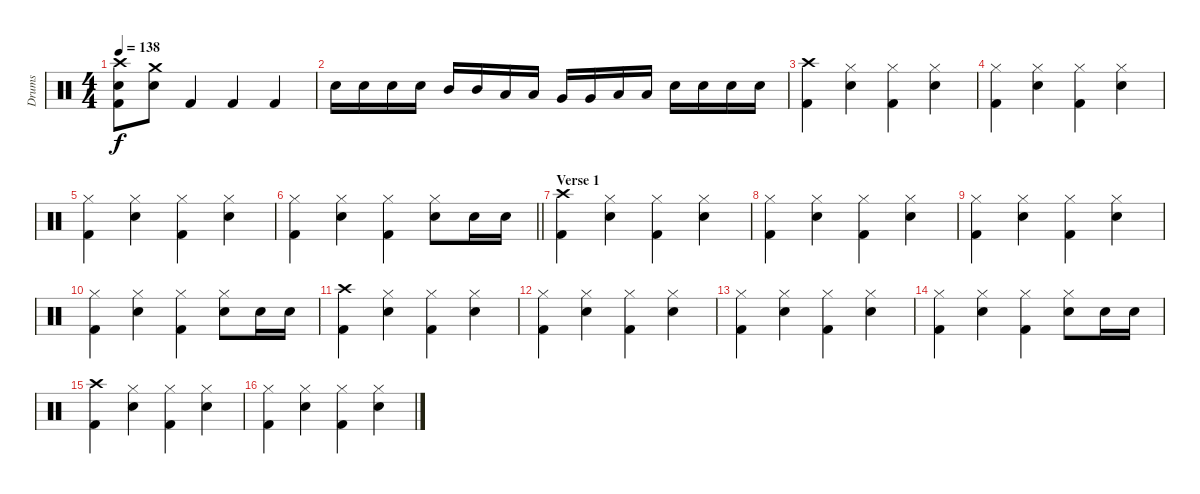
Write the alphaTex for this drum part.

\track ("Drums" "Drums") {instrument percussion}
\staff {score}
\articulation defaults
\ts (4 4)
\tempo 138
\clef neutral
\ks c
("Crash high (hit)" "Snare (hit) 2" "Kick (hit) 2").8{dy f} ("Crash medium (hit)" "Snare (hit) 2").8 "Kick (hit) 2".4 "Kick (hit) 2".4 "Kick (hit) 2".4 |
"Snare (hit) 2".16 "Snare (hit) 2".16 "Snare (hit) 2".16 "Snare (hit) 2".16 "Mid Tom (hit)".16 "Mid Tom (hit)".16 "Low Tom (hit)".16 "Low Tom (hit)".16 "Very Low Tom (hit)".16 "Very Low Tom (hit)".16 "Low Floor Tom (hit)".16 "Low Floor Tom (hit)".16 "Snare (hit) 2".16 "Snare (hit) 2".16 "Snare (hit) 2".16 "Snare (hit) 2".16 |
("Crash high (hit)" "Kick (hit) 2").4 ("Snare (hit) 2" "Hi-Hat (closed)").4 ("Hi-Hat (closed)" "Kick (hit) 2").4 ("Snare (hit) 2" "Hi-Hat (closed)").4 |
("Hi-Hat (closed)" "Kick (hit) 2").4 ("Snare (hit) 2" "Hi-Hat (closed)").4 ("Hi-Hat (closed)" "Kick (hit) 2").4 ("Snare (hit) 2" "Hi-Hat (closed)").4 |
("Hi-Hat (closed)" "Kick (hit) 2").4 ("Snare (hit) 2" "Hi-Hat (closed)").4 ("Hi-Hat (closed)" "Kick (hit) 2").4 ("Snare (hit) 2" "Hi-Hat (closed)").4 |
\barLineRight lightlight
("Hi-Hat (closed)" "Kick (hit) 2").4 ("Snare (hit) 2" "Hi-Hat (closed)").4 ("Hi-Hat (closed)" "Kick (hit) 2").4 ("Snare (hit) 2" "Hi-Hat (closed)").8 "Snare (hit) 2".16 "Snare (hit) 2".16 |
\section ("" "Verse 1")
("Crash high (hit)" "Kick (hit) 2").4 ("Snare (hit) 2" "Hi-Hat (closed)").4 ("Hi-Hat (closed)" "Kick (hit) 2").4 ("Snare (hit) 2" "Hi-Hat (closed)").4 |
("Hi-Hat (closed)" "Kick (hit) 2").4 ("Snare (hit) 2" "Hi-Hat (closed)").4 ("Hi-Hat (closed)" "Kick (hit) 2").4 ("Snare (hit) 2" "Hi-Hat (closed)").4 |
("Hi-Hat (closed)" "Kick (hit) 2").4 ("Snare (hit) 2" "Hi-Hat (closed)").4 ("Hi-Hat (closed)" "Kick (hit) 2").4 ("Snare (hit) 2" "Hi-Hat (closed)").4 |
("Hi-Hat (closed)" "Kick (hit) 2").4 ("Snare (hit) 2" "Hi-Hat (closed)").4 ("Hi-Hat (closed)" "Kick (hit) 2").4 ("Snare (hit) 2" "Hi-Hat (closed)").8 "Snare (hit) 2".16 "Snare (hit) 2".16 |
("Crash high (hit)" "Kick (hit) 2").4 ("Snare (hit) 2" "Hi-Hat (closed)").4 ("Hi-Hat (closed)" "Kick (hit) 2").4 ("Snare (hit) 2" "Hi-Hat (closed)").4 |
("Hi-Hat (closed)" "Kick (hit) 2").4 ("Snare (hit) 2" "Hi-Hat (closed)").4 ("Hi-Hat (closed)" "Kick (hit) 2").4 ("Snare (hit) 2" "Hi-Hat (closed)").4 |
("Hi-Hat (closed)" "Kick (hit) 2").4 ("Snare (hit) 2" "Hi-Hat (closed)").4 ("Hi-Hat (closed)" "Kick (hit) 2").4 ("Snare (hit) 2" "Hi-Hat (closed)").4 |
("Hi-Hat (closed)" "Kick (hit) 2").4 ("Snare (hit) 2" "Hi-Hat (closed)").4 ("Hi-Hat (closed)" "Kick (hit) 2").4 ("Snare (hit) 2" "Hi-Hat (closed)").8 "Snare (hit) 2".16 "Snare (hit) 2".16 |
("Crash high (hit)" "Kick (hit) 2").4 ("Snare (hit) 2" "Hi-Hat (closed)").4 ("Hi-Hat (closed)" "Kick (hit) 2").4 ("Snare (hit) 2" "Hi-Hat (closed)").4 |
("Hi-Hat (closed)" "Kick (hit) 2").4 ("Snare (hit) 2" "Hi-Hat (closed)").4 ("Hi-Hat (closed)" "Kick (hit) 2").4 ("Snare (hit) 2" "Hi-Hat (closed)").4
